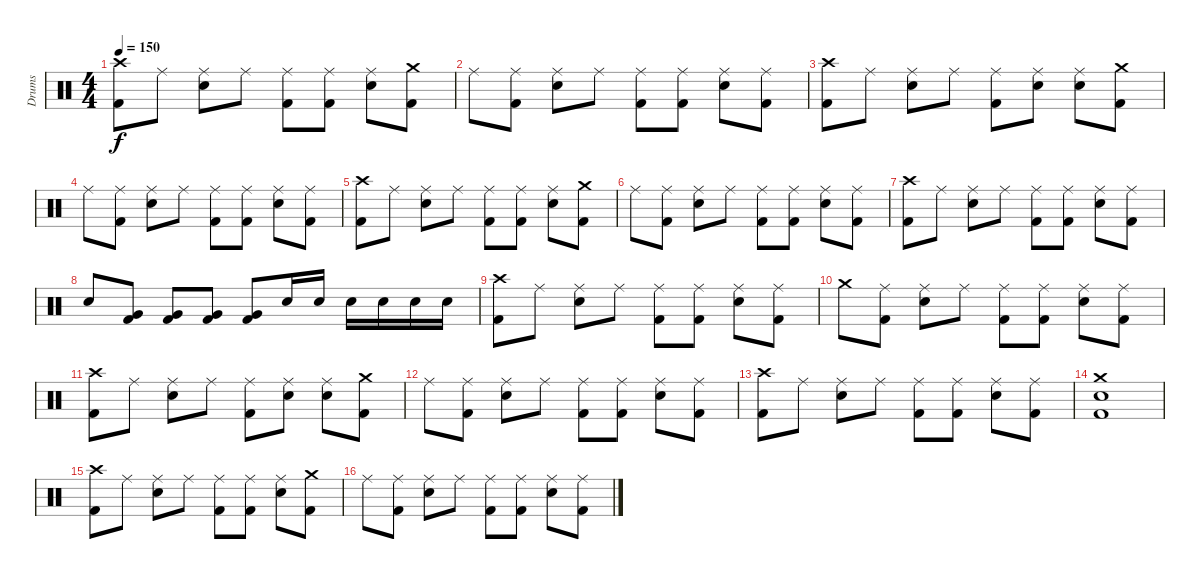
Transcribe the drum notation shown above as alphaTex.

\track ("Drums" "Drums") {instrument percussion}
\staff {score}
\articulation defaults
\ts (4 4)
\tempo 150
\clef neutral
\ks c
("Crash high (hit)" "Kick (hit) 2").8{dy f} "Ride (middle)".8 ("Ride (middle)" "Electric Snare (hit)").8 "Ride (middle)".8 ("Ride (middle)" "Kick (hit) 2").8 ("Ride (middle)" "Kick (hit) 2").8 ("Ride (middle)" "Electric Snare (hit)").8 ("Crash medium (hit)" "Kick (hit) 2").8 |
"Ride (middle)".8 ("Ride (middle)" "Kick (hit) 2").8 ("Ride (middle)" "Electric Snare (hit)").8 "Ride (middle)".8 ("Ride (middle)" "Kick (hit) 2").8 ("Ride (middle)" "Kick (hit) 2").8 ("Ride (middle)" "Electric Snare (hit)").8 ("Ride (middle)" "Kick (hit) 2").8 |
("Crash high (hit)" "Kick (hit) 2").8 "Ride (middle)".8 ("Ride (middle)" "Electric Snare (hit)").8 "Ride (middle)".8 ("Ride (middle)" "Kick (hit) 2").8 ("Ride (middle)" "Electric Snare (hit)").8 ("Ride (middle)" "Electric Snare (hit)").8 ("Crash medium (hit)" "Kick (hit) 2").8 |
"Ride (middle)".8 ("Ride (middle)" "Kick (hit) 2").8 ("Ride (middle)" "Electric Snare (hit)").8 "Ride (middle)".8 ("Ride (middle)" "Kick (hit) 2").8 ("Ride (middle)" "Kick (hit) 2").8 ("Ride (middle)" "Electric Snare (hit)").8 ("Ride (middle)" "Kick (hit) 2").8 |
("Crash high (hit)" "Kick (hit) 2").8 "Ride (middle)".8 ("Ride (middle)" "Electric Snare (hit)").8 "Ride (middle)".8 ("Ride (middle)" "Kick (hit) 2").8 ("Ride (middle)" "Kick (hit) 2").8 ("Ride (middle)" "Electric Snare (hit)").8 ("Crash medium (hit)" "Kick (hit) 2").8 |
"Ride (middle)".8 ("Ride (middle)" "Kick (hit) 2").8 ("Ride (middle)" "Electric Snare (hit)").8 "Ride (middle)".8 ("Ride (middle)" "Kick (hit) 2").8 ("Ride (middle)" "Kick (hit) 2").8 ("Ride (middle)" "Electric Snare (hit)").8 ("Ride (middle)" "Kick (hit) 2").8 |
("Crash high (hit)" "Kick (hit) 2").8 "Ride (middle)".8 ("Ride (middle)" "Electric Snare (hit)").8 "Ride (middle)".8 ("Ride (middle)" "Kick (hit) 2").8 ("Ride (middle)" "Kick (hit) 2").8 ("Ride (middle)" "Electric Snare (hit)").8 ("Ride (middle)" "Kick (hit) 2").8 |
"Electric Snare (hit)".8 ("Very Low Tom (hit)" "Kick (hit) 2").8 ("Very Low Tom (hit)" "Kick (hit) 2").8 ("Very Low Tom (hit)" "Kick (hit) 2").8 ("Very Low Tom (hit)" "Kick (hit) 2").8 "Electric Snare (hit)".16 "Electric Snare (hit)".16 "Electric Snare (hit)".16 "Electric Snare (hit)".16 "Electric Snare (hit)".16 "Electric Snare (hit)".16 |
("Crash high (hit)" "Kick (hit) 2").8 "Ride (middle)".8 ("Ride (middle)" "Electric Snare (hit)").8 "Ride (middle)".8 ("Ride (middle)" "Kick (hit) 2").8 ("Ride (middle)" "Kick (hit) 2").8 ("Ride (middle)" "Electric Snare (hit)").8 ("Ride (middle)" "Kick (hit) 2").8 |
"Crash medium (hit)".8 ("Ride (middle)" "Kick (hit) 2").8 ("Ride (middle)" "Electric Snare (hit)").8 "Ride (middle)".8 ("Ride (middle)" "Kick (hit) 2").8 ("Ride (middle)" "Kick (hit) 2").8 ("Ride (middle)" "Electric Snare (hit)").8 ("Ride (middle)" "Kick (hit) 2").8 |
("Crash high (hit)" "Kick (hit) 2").8 "Ride (middle)".8 ("Ride (middle)" "Electric Snare (hit)").8 "Ride (middle)".8 ("Ride (middle)" "Kick (hit) 2").8 ("Ride (middle)" "Electric Snare (hit)").8 ("Ride (middle)" "Electric Snare (hit)").8 ("Crash medium (hit)" "Kick (hit) 2").8 |
"Ride (middle)".8 ("Ride (middle)" "Kick (hit) 2").8 ("Ride (middle)" "Electric Snare (hit)").8 "Ride (middle)".8 ("Ride (middle)" "Kick (hit) 2").8 ("Ride (middle)" "Kick (hit) 2").8 ("Ride (middle)" "Electric Snare (hit)").8 ("Ride (middle)" "Kick (hit) 2").8 |
("Crash high (hit)" "Kick (hit) 2").8 "Ride (middle)".8 ("Ride (middle)" "Electric Snare (hit)").8 "Ride (middle)".8 ("Ride (middle)" "Kick (hit) 2").8 ("Ride (middle)" "Kick (hit) 2").8 ("Ride (middle)" "Electric Snare (hit)").8 ("Ride (middle)" "Kick (hit) 2").8 |
("Crash medium (hit)" "Electric Snare (hit)" "Kick (hit) 2").1 |
("Crash high (hit)" "Kick (hit) 2").8 "Ride (middle)".8 ("Ride (middle)" "Electric Snare (hit)").8 "Ride (middle)".8 ("Ride (middle)" "Kick (hit) 2").8 ("Ride (middle)" "Kick (hit) 2").8 ("Ride (middle)" "Electric Snare (hit)").8 ("Crash medium (hit)" "Kick (hit) 2").8 |
"Ride (middle)".8 ("Ride (middle)" "Kick (hit) 2").8 ("Ride (middle)" "Electric Snare (hit)").8 "Ride (middle)".8 ("Ride (middle)" "Kick (hit) 2").8 ("Ride (middle)" "Kick (hit) 2").8 ("Ride (middle)" "Electric Snare (hit)").8 ("Ride (middle)" "Kick (hit) 2").8
